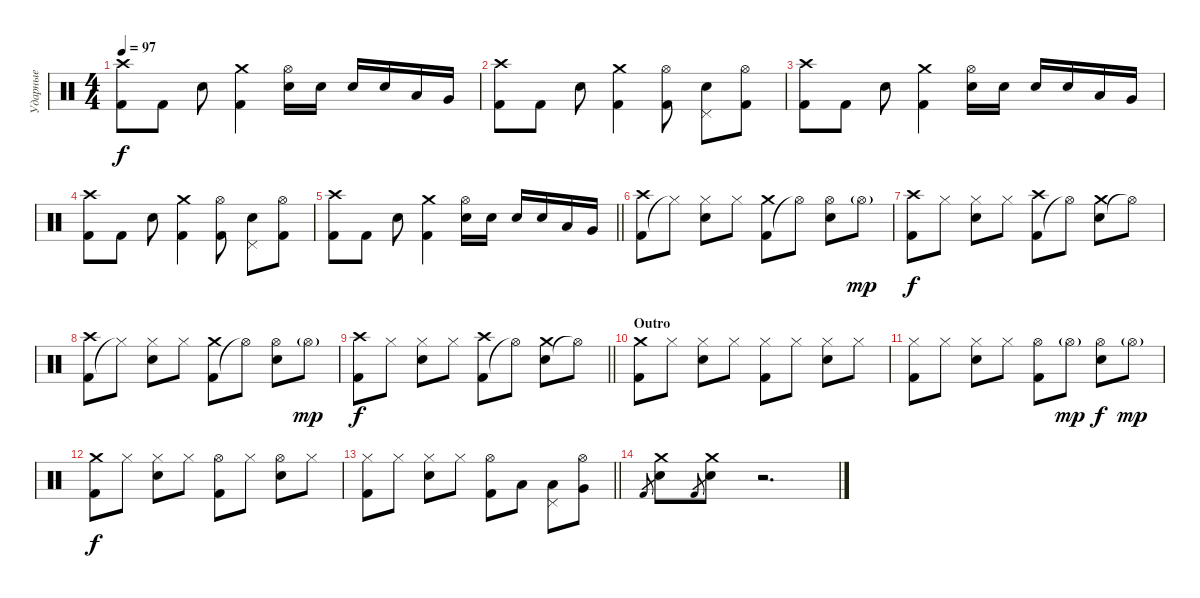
\track ("Ударные" "Ударные") {instrument percussion}
\staff {score}
\articulation defaults
\ts (4 4)
\tempo 97
\clef neutral
\ks c
("Crash high (hit)" "Kick (hit) 2").8{dy f} "Kick (hit) 2".8 "Snare (hit) 2".8 ("Crash medium (hit)" "Kick (hit) 2").4 ("Hi-Hat (open)" "Snare (hit) 2").16 "Snare (hit) 2".16 "Snare (hit) 2".16 "Snare (hit) 2".16 "Low Tom (hit)".16 "Very Low Tom (hit)".16 |
("Crash high (hit)" "Kick (hit) 2").8 "Kick (hit) 2".8 "Snare (hit) 2".8 ("Crash medium (hit)" "Kick (hit) 2").4 ("Hi-Hat (open)" "Kick (hit) 2").8 ("Pedal Hi-Hat (hit)" "Snare (hit) 2").8 ("Hi-Hat (open)" "Kick (hit) 2").8 |
("Crash high (hit)" "Kick (hit) 2").8 "Kick (hit) 2".8 "Snare (hit) 2".8 ("Crash medium (hit)" "Kick (hit) 2").4 ("Hi-Hat (open)" "Snare (hit) 2").16 "Snare (hit) 2".16 "Snare (hit) 2".16 "Snare (hit) 2".16 "Low Tom (hit)".16 "Very Low Tom (hit)".16 |
("Crash high (hit)" "Kick (hit) 2").8 "Kick (hit) 2".8 "Snare (hit) 2".8 ("Crash medium (hit)" "Kick (hit) 2").4 ("Hi-Hat (open)" "Kick (hit) 2").8 ("Pedal Hi-Hat (hit)" "Snare (hit) 2").8 ("Hi-Hat (open)" "Kick (hit) 2").8 |
\barLineRight lightlight
("Crash high (hit)" "Kick (hit) 2").8 "Kick (hit) 2".8 "Snare (hit) 2".8 ("Crash medium (hit)" "Kick (hit) 2").4 ("Hi-Hat (open)" "Snare (hit) 2").16 "Snare (hit) 2".16 "Snare (hit) 2".16 "Snare (hit) 2".16 "Low Tom (hit)".16 "Very Low Tom (hit)".16 |
("Kick (hit) 2" "Crash high (hit)").8 "Hi-Hat (closed)"{t}.8 ("Snare (hit) 2" "Hi-Hat (closed)").8 "Hi-Hat (closed)".8 ("Kick (hit) 2" "Crash medium (hit)").8 "Hi-Hat (open)"{t}.8 ("Snare (hit) 2" "Hi-Hat (open)").8 "Hi-Hat (open)"{g}.8{dy mp} |
("Kick (hit) 2" "Crash high (hit)").8{dy f} "Hi-Hat (closed)".8 ("Snare (hit) 2" "Hi-Hat (closed)").8 "Hi-Hat (closed)".8 ("Kick (hit) 2" "Crash high (hit)").8 "Hi-Hat (open)"{t}.8 ("Snare (hit) 2" "Crash medium (hit)").8 "Hi-Hat (open)"{t}.8 |
("Kick (hit) 2" "Crash high (hit)").8 "Hi-Hat (closed)"{t}.8 ("Snare (hit) 2" "Hi-Hat (closed)").8 "Hi-Hat (closed)".8 ("Kick (hit) 2" "Crash medium (hit)").8 "Hi-Hat (open)"{t}.8 ("Snare (hit) 2" "Hi-Hat (open)").8 "Hi-Hat (open)"{g}.8{dy mp} |
\barLineRight lightlight
("Kick (hit) 2" "Crash high (hit)").8{dy f} "Hi-Hat (closed)".8 ("Snare (hit) 2" "Hi-Hat (closed)").8 "Hi-Hat (closed)".8 ("Kick (hit) 2" "Crash high (hit)").8 "Hi-Hat (open)"{t}.8 ("Snare (hit) 2" "Crash medium (hit)").8 "Hi-Hat (open)"{t}.8 |
\section ("" "Outro")
("Crash medium (hit)" "Kick (hit) 2").8 "Hi-Hat (closed)".8 ("Snare (hit) 2" "Hi-Hat (closed)").8 "Hi-Hat (closed)".8 ("Kick (hit) 2" "Hi-Hat (closed)").8 "Hi-Hat (closed)".8 ("Snare (hit) 2" "Hi-Hat (closed)").8 "Hi-Hat (closed)".8 |
("Kick (hit) 2" "Hi-Hat (closed)").8 "Hi-Hat (closed)".8 ("Snare (hit) 2" "Hi-Hat (closed)").8 "Hi-Hat (closed)".8 ("Kick (hit) 2" "Hi-Hat (open)").8 "Hi-Hat (open)"{g}.8{dy mp} ("Snare (hit) 2" "Hi-Hat (open)").8{dy f} "Hi-Hat (open)"{g}.8{dy mp} |
("Crash medium (hit)" "Kick (hit) 2").8{dy f} "Hi-Hat (closed)".8 ("Snare (hit) 2" "Hi-Hat (closed)").8 "Hi-Hat (closed)".8 ("Kick (hit) 2" "Hi-Hat (open)").8 "Hi-Hat (closed)".8 ("Snare (hit) 2" "Hi-Hat (open)").8 "Hi-Hat (closed)".8 |
\barLineRight lightlight
("Kick (hit) 2" "Hi-Hat (closed)").8 "Hi-Hat (closed)".8 ("Snare (hit) 2" "Hi-Hat (closed)").8 "Hi-Hat (closed)".8 ("Kick (hit) 2" "Hi-Hat (open)").8 "Low Tom (hit)".8 ("Pedal Hi-Hat (hit)" "Low Tom (hit)").8 ("Hi-Hat (open)" "Very Low Tom (hit)").8 |
"Kick (hit) 2".8{gr} ("Crash medium (hit)" "Snare (hit) 2").8 "Kick (hit) 2".8{gr} ("Crash medium (hit)" "Snare (hit) 2").8 r.2{d}
